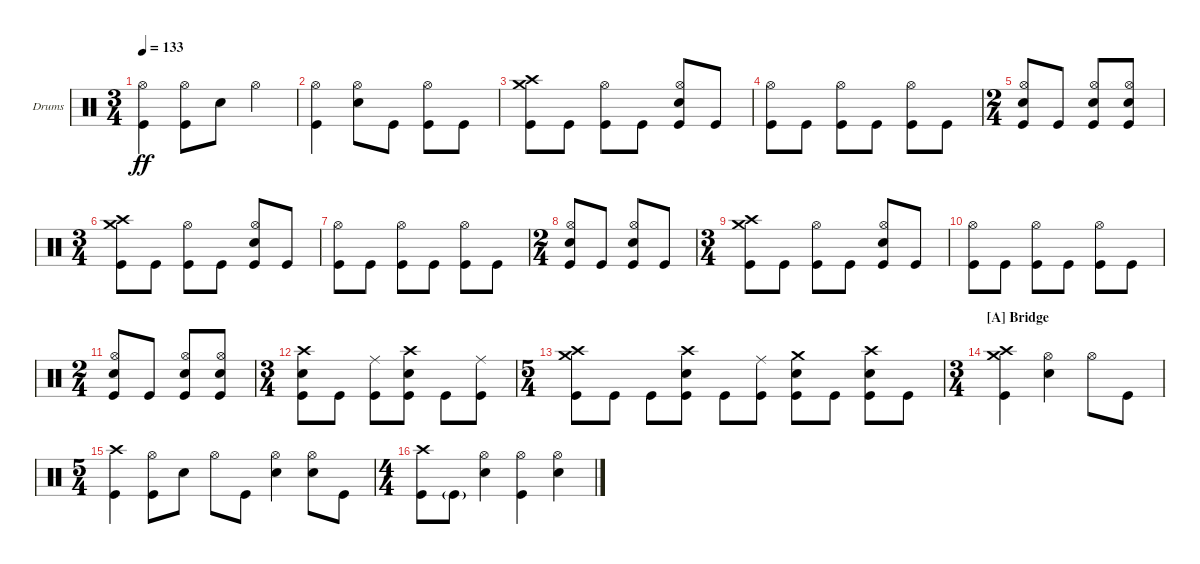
\bracketExtendMode groupsimilarinstruments
\firstSystemTrackNameOrientation horizontal
\otherSystemsTrackNameOrientation horizontal
\track ("Drumkit" "Drums") {instrument percussion}
\staff {score}
\articulation defaults
\ts (3 4)
\tempo 133
\clef neutral
\ks c
("Kick (hit)" "Hi-Hat (open)").4{dy ff} ("Hi-Hat (open)" "Kick (hit)").8 "Snare (hit) 2".8 "Hi-Hat (open)".4 |
("Hi-Hat (open)" "Kick (hit)").4 ("Hi-Hat (open)" "Snare (hit) 2").8 "Kick (hit)".8 ("Hi-Hat (open)" "Kick (hit)").8 "Kick (hit)".8 |
("Kick (hit)" "Crash high (hit)" "Crash medium (hit)").8 "Kick (hit)".8 ("Kick (hit)" "Hi-Hat (open)").8 "Kick (hit)".8 ("Kick (hit)" "Hi-Hat (open)" "Snare (hit) 2").8 "Kick (hit)".8 |
("Kick (hit)" "Hi-Hat (open)").8 "Kick (hit)".8 ("Kick (hit)" "Hi-Hat (open)").8 "Kick (hit)".8 ("Kick (hit)" "Hi-Hat (open)").8 "Kick (hit)".8 |
\ts (2 4)
("Kick (hit)" "Hi-Hat (open)" "Snare (hit) 2").8 "Kick (hit)".8 ("Kick (hit)" "Hi-Hat (open)" "Snare (hit) 2").8 ("Kick (hit)" "Snare (hit) 2" "Hi-Hat (open)").8 |
\ts (3 4)
("Kick (hit)" "Crash high (hit)" "Crash medium (hit)").8 "Kick (hit)".8 ("Kick (hit)" "Hi-Hat (open)").8 "Kick (hit)".8 ("Kick (hit)" "Snare (hit) 2" "Hi-Hat (open)").8 "Kick (hit)".8 |
("Kick (hit)" "Hi-Hat (open)").8 "Kick (hit)".8 ("Kick (hit)" "Hi-Hat (open)").8 "Kick (hit)".8 ("Kick (hit)" "Hi-Hat (open)").8 "Kick (hit)".8 |
\ts (2 4)
("Kick (hit)" "Hi-Hat (open)" "Snare (hit) 2").8 "Kick (hit)".8 ("Kick (hit)" "Snare (hit) 2" "Hi-Hat (open)").8 "Kick (hit)".8 |
\ts (3 4)
("Kick (hit)" "Crash high (hit)" "Crash medium (hit)").8 "Kick (hit)".8 ("Kick (hit)" "Hi-Hat (open)").8 "Kick (hit)".8 ("Kick (hit)" "Hi-Hat (open)" "Snare (hit) 2").8 "Kick (hit)".8 |
("Kick (hit)" "Hi-Hat (open)").8 "Kick (hit)".8 ("Kick (hit)" "Hi-Hat (open)").8 "Kick (hit)".8 ("Kick (hit)" "Hi-Hat (open)").8 "Kick (hit)".8 |
\ts (2 4)
("Kick (hit)" "Snare (hit) 2" "Hi-Hat (open)").8 "Kick (hit)".8 ("Kick (hit)" "Snare (hit) 2" "Hi-Hat (open)").8 ("Kick (hit)" "Snare (hit) 2" "Hi-Hat (open)").8 |
\ts (3 4)
("Kick (hit)" "Snare (hit) 2" "Crash high (hit)").8 "Kick (hit)".8 ("Kick (hit)" "Ride (middle)").8 ("Kick (hit)" "Snare (hit) 2" "Crash high (hit)").8 "Kick (hit)".8 ("Kick (hit)" "Ride (middle)").8 |
\ts (5 4)
("Kick (hit)" "Crash high (hit)" "Crash medium (hit)").8 "Kick (hit)".8 "Kick (hit)".8 ("Kick (hit)" "Snare (hit) 2" "Crash high (hit)").8 "Kick (hit)".8 ("Kick (hit)" "Ride (middle)").8 ("Kick (hit)" "Snare (hit) 2" "Crash medium (hit)").8 "Kick (hit)".8 ("Kick (hit)" "Snare (hit) 2" "Crash high (hit)").8 "Kick (hit)".8 |
\ts (3 4)
\section ("A" "Bridge")
("Kick (hit)" "Crash medium (hit)" "Crash high (hit)").4 ("Hi-Hat (open)" "Snare (hit) 2").4 "Hi-Hat (open)".8 "Kick (hit)".8 |
\ts (5 4)
("Crash high (hit)" "Kick (hit)").4 ("Hi-Hat (open)" "Kick (hit)").8 "Snare (hit) 2".8 "Hi-Hat (open)".8 "Kick (hit)".8 ("Hi-Hat (open)" "Snare (hit) 2").4 ("Hi-Hat (open)" "Snare (hit) 2").8 "Kick (hit)".8 |
\ts (4 4)
("Crash high (hit)" "Kick (hit)").8 "Kick (hit)"{g}.8 ("Hi-Hat (open)" "Snare (hit) 2").4 ("Hi-Hat (open)" "Kick (hit)").4 ("Hi-Hat (open)" "Snare (hit) 2").4
